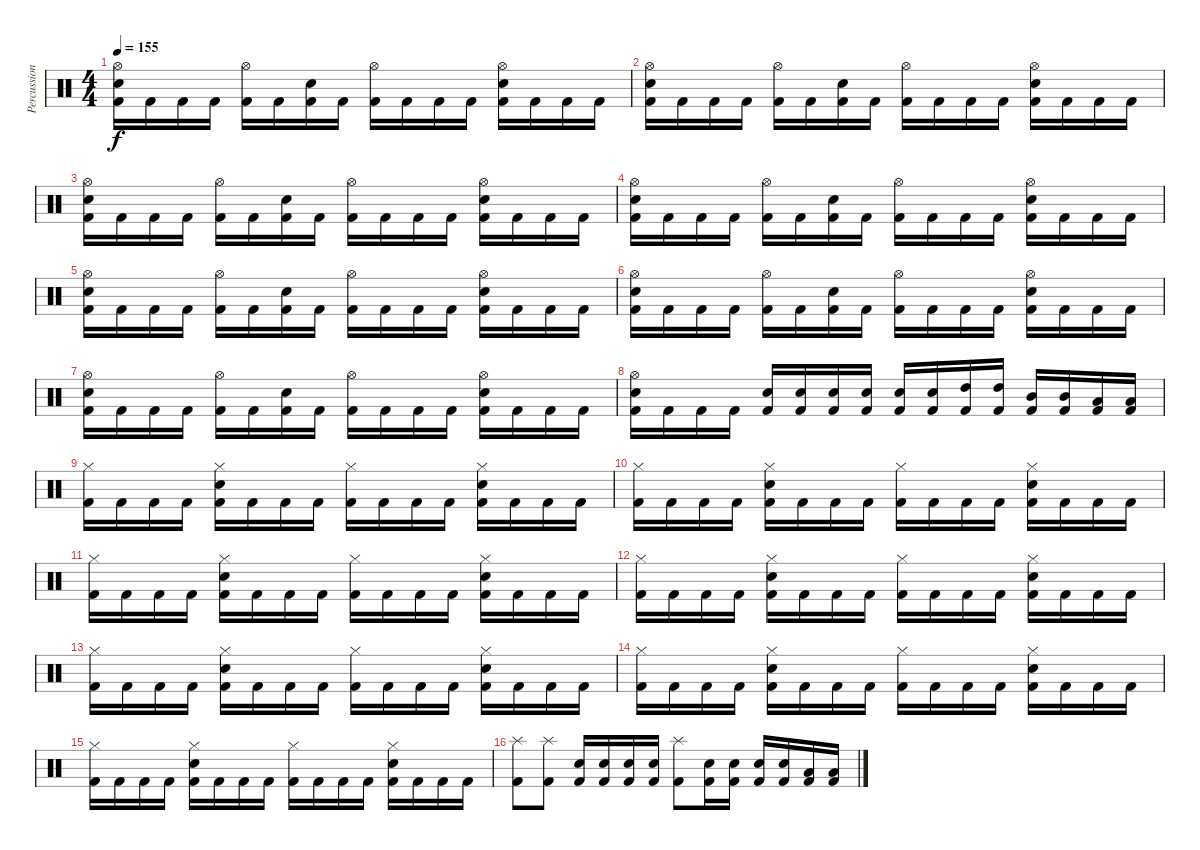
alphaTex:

\track ("Percussion" "Percussion") {instrument percussion}
\staff {score}
\articulation defaults
\ts (4 4)
\tempo 155
\clef neutral
\ks c
("Hi-Hat (open)" "Electric Snare (hit)" "Kick (hit) 2").16{dy f} "Kick (hit) 2".16 "Kick (hit) 2".16 "Kick (hit) 2".16 ("Hi-Hat (open)" "Kick (hit) 2").16 "Kick (hit) 2".16 ("Electric Snare (hit)" "Kick (hit) 2").16 "Kick (hit) 2".16 ("Hi-Hat (open)" "Kick (hit) 2").16 "Kick (hit) 2".16 "Kick (hit) 2".16 "Kick (hit) 2".16 ("Hi-Hat (open)" "Electric Snare (hit)" "Kick (hit) 2").16 "Kick (hit) 2".16 "Kick (hit) 2".16 "Kick (hit) 2".16 |
("Hi-Hat (open)" "Electric Snare (hit)" "Kick (hit) 2").16 "Kick (hit) 2".16 "Kick (hit) 2".16 "Kick (hit) 2".16 ("Hi-Hat (open)" "Kick (hit) 2").16 "Kick (hit) 2".16 ("Electric Snare (hit)" "Kick (hit) 2").16 "Kick (hit) 2".16 ("Hi-Hat (open)" "Kick (hit) 2").16 "Kick (hit) 2".16 "Kick (hit) 2".16 "Kick (hit) 2".16 ("Hi-Hat (open)" "Electric Snare (hit)" "Kick (hit) 2").16 "Kick (hit) 2".16 "Kick (hit) 2".16 "Kick (hit) 2".16 |
("Hi-Hat (open)" "Electric Snare (hit)" "Kick (hit) 2").16 "Kick (hit) 2".16 "Kick (hit) 2".16 "Kick (hit) 2".16 ("Hi-Hat (open)" "Kick (hit) 2").16 "Kick (hit) 2".16 ("Electric Snare (hit)" "Kick (hit) 2").16 "Kick (hit) 2".16 ("Hi-Hat (open)" "Kick (hit) 2").16 "Kick (hit) 2".16 "Kick (hit) 2".16 "Kick (hit) 2".16 ("Hi-Hat (open)" "Electric Snare (hit)" "Kick (hit) 2").16 "Kick (hit) 2".16 "Kick (hit) 2".16 "Kick (hit) 2".16 |
("Hi-Hat (open)" "Electric Snare (hit)" "Kick (hit) 2").16 "Kick (hit) 2".16 "Kick (hit) 2".16 "Kick (hit) 2".16 ("Hi-Hat (open)" "Kick (hit) 2").16 "Kick (hit) 2".16 ("Electric Snare (hit)" "Kick (hit) 2").16 "Kick (hit) 2".16 ("Hi-Hat (open)" "Kick (hit) 2").16 "Kick (hit) 2".16 "Kick (hit) 2".16 "Kick (hit) 2".16 ("Hi-Hat (open)" "Electric Snare (hit)" "Kick (hit) 2").16 "Kick (hit) 2".16 "Kick (hit) 2".16 "Kick (hit) 2".16 |
("Hi-Hat (open)" "Electric Snare (hit)" "Kick (hit) 2").16 "Kick (hit) 2".16 "Kick (hit) 2".16 "Kick (hit) 2".16 ("Hi-Hat (open)" "Kick (hit) 2").16 "Kick (hit) 2".16 ("Electric Snare (hit)" "Kick (hit) 2").16 "Kick (hit) 2".16 ("Hi-Hat (open)" "Kick (hit) 2").16 "Kick (hit) 2".16 "Kick (hit) 2".16 "Kick (hit) 2".16 ("Hi-Hat (open)" "Electric Snare (hit)" "Kick (hit) 2").16 "Kick (hit) 2".16 "Kick (hit) 2".16 "Kick (hit) 2".16 |
("Hi-Hat (open)" "Electric Snare (hit)" "Kick (hit) 2").16 "Kick (hit) 2".16 "Kick (hit) 2".16 "Kick (hit) 2".16 ("Hi-Hat (open)" "Kick (hit) 2").16 "Kick (hit) 2".16 ("Electric Snare (hit)" "Kick (hit) 2").16 "Kick (hit) 2".16 ("Hi-Hat (open)" "Kick (hit) 2").16 "Kick (hit) 2".16 "Kick (hit) 2".16 "Kick (hit) 2".16 ("Hi-Hat (open)" "Electric Snare (hit)" "Kick (hit) 2").16 "Kick (hit) 2".16 "Kick (hit) 2".16 "Kick (hit) 2".16 |
("Hi-Hat (open)" "Electric Snare (hit)" "Kick (hit) 2").16 "Kick (hit) 2".16 "Kick (hit) 2".16 "Kick (hit) 2".16 ("Hi-Hat (open)" "Kick (hit) 2").16 "Kick (hit) 2".16 ("Electric Snare (hit)" "Kick (hit) 2").16 "Kick (hit) 2".16 ("Hi-Hat (open)" "Kick (hit) 2").16 "Kick (hit) 2".16 "Kick (hit) 2".16 "Kick (hit) 2".16 ("Hi-Hat (open)" "Electric Snare (hit)" "Kick (hit) 2").16 "Kick (hit) 2".16 "Kick (hit) 2".16 "Kick (hit) 2".16 |
("Hi-Hat (open)" "Electric Snare (hit)" "Kick (hit) 2").16 "Kick (hit) 2".16 "Kick (hit) 2".16 "Kick (hit) 2".16 ("Electric Snare (hit)" "Kick (hit) 2").16 ("Electric Snare (hit)" "Kick (hit) 2").16 ("Electric Snare (hit)" "Kick (hit) 2").16 ("Electric Snare (hit)" "Kick (hit) 2").16 ("Electric Snare (hit)" "Kick (hit) 2").16 ("Electric Snare (hit)" "Kick (hit) 2").16 ("High Tom (hit)" "Kick (hit) 2").16 ("High Tom (hit)" "Kick (hit) 2").16 ("Mid Tom (hit)" "Kick (hit) 2").16 ("Mid Tom (hit)" "Kick (hit) 2").16 ("Low Tom (hit)" "Kick (hit) 2").16 ("Low Tom (hit)" "Kick (hit) 2").16 |
("Hi-Hat (closed)" "Kick (hit) 2").16 "Kick (hit) 2".16 "Kick (hit) 2".16 "Kick (hit) 2".16 ("Hi-Hat (closed)" "Electric Snare (hit)" "Kick (hit) 2").16 "Kick (hit) 2".16 "Kick (hit) 2".16 "Kick (hit) 2".16 ("Hi-Hat (closed)" "Kick (hit) 2").16 "Kick (hit) 2".16 "Kick (hit) 2".16 "Kick (hit) 2".16 ("Hi-Hat (closed)" "Electric Snare (hit)" "Kick (hit) 2").16 "Kick (hit) 2".16 "Kick (hit) 2".16 "Kick (hit) 2".16 |
("Hi-Hat (closed)" "Kick (hit) 2").16 "Kick (hit) 2".16 "Kick (hit) 2".16 "Kick (hit) 2".16 ("Hi-Hat (closed)" "Electric Snare (hit)" "Kick (hit) 2").16 "Kick (hit) 2".16 "Kick (hit) 2".16 "Kick (hit) 2".16 ("Hi-Hat (closed)" "Kick (hit) 2").16 "Kick (hit) 2".16 "Kick (hit) 2".16 "Kick (hit) 2".16 ("Hi-Hat (closed)" "Electric Snare (hit)" "Kick (hit) 2").16 "Kick (hit) 2".16 "Kick (hit) 2".16 "Kick (hit) 2".16 |
("Hi-Hat (closed)" "Kick (hit) 2").16 "Kick (hit) 2".16 "Kick (hit) 2".16 "Kick (hit) 2".16 ("Hi-Hat (closed)" "Electric Snare (hit)" "Kick (hit) 2").16 "Kick (hit) 2".16 "Kick (hit) 2".16 "Kick (hit) 2".16 ("Hi-Hat (closed)" "Kick (hit) 2").16 "Kick (hit) 2".16 "Kick (hit) 2".16 "Kick (hit) 2".16 ("Hi-Hat (closed)" "Electric Snare (hit)" "Kick (hit) 2").16 "Kick (hit) 2".16 "Kick (hit) 2".16 "Kick (hit) 2".16 |
("Hi-Hat (closed)" "Kick (hit) 2").16 "Kick (hit) 2".16 "Kick (hit) 2".16 "Kick (hit) 2".16 ("Hi-Hat (closed)" "Electric Snare (hit)" "Kick (hit) 2").16 "Kick (hit) 2".16 "Kick (hit) 2".16 "Kick (hit) 2".16 ("Hi-Hat (closed)" "Kick (hit) 2").16 "Kick (hit) 2".16 "Kick (hit) 2".16 "Kick (hit) 2".16 ("Hi-Hat (closed)" "Electric Snare (hit)" "Kick (hit) 2").16 "Kick (hit) 2".16 "Kick (hit) 2".16 "Kick (hit) 2".16 |
("Hi-Hat (closed)" "Kick (hit) 2").16 "Kick (hit) 2".16 "Kick (hit) 2".16 "Kick (hit) 2".16 ("Hi-Hat (closed)" "Electric Snare (hit)" "Kick (hit) 2").16 "Kick (hit) 2".16 "Kick (hit) 2".16 "Kick (hit) 2".16 ("Hi-Hat (closed)" "Kick (hit) 2").16 "Kick (hit) 2".16 "Kick (hit) 2".16 "Kick (hit) 2".16 ("Hi-Hat (closed)" "Electric Snare (hit)" "Kick (hit) 2").16 "Kick (hit) 2".16 "Kick (hit) 2".16 "Kick (hit) 2".16 |
("Hi-Hat (closed)" "Kick (hit) 2").16 "Kick (hit) 2".16 "Kick (hit) 2".16 "Kick (hit) 2".16 ("Hi-Hat (closed)" "Electric Snare (hit)" "Kick (hit) 2").16 "Kick (hit) 2".16 "Kick (hit) 2".16 "Kick (hit) 2".16 ("Hi-Hat (closed)" "Kick (hit) 2").16 "Kick (hit) 2".16 "Kick (hit) 2".16 "Kick (hit) 2".16 ("Hi-Hat (closed)" "Electric Snare (hit)" "Kick (hit) 2").16 "Kick (hit) 2".16 "Kick (hit) 2".16 "Kick (hit) 2".16 |
("Hi-Hat (closed)" "Kick (hit) 2").16 "Kick (hit) 2".16 "Kick (hit) 2".16 "Kick (hit) 2".16 ("Hi-Hat (closed)" "Electric Snare (hit)" "Kick (hit) 2").16 "Kick (hit) 2".16 "Kick (hit) 2".16 "Kick (hit) 2".16 ("Hi-Hat (closed)" "Kick (hit) 2").16 "Kick (hit) 2".16 "Kick (hit) 2".16 "Kick (hit) 2".16 ("Hi-Hat (closed)" "Electric Snare (hit)" "Kick (hit) 2").16 "Kick (hit) 2".16 "Kick (hit) 2".16 "Kick (hit) 2".16 |
("Splash (hit)" "Kick (hit) 2").8 ("Splash (hit)" "Kick (hit) 2").8 ("Electric Snare (hit)" "Kick (hit) 2").16 ("Electric Snare (hit)" "Kick (hit) 2").16 ("Electric Snare (hit)" "Kick (hit) 2").16 ("Electric Snare (hit)" "Kick (hit) 2").16 ("Splash (hit)" "Kick (hit) 2").8 ("Electric Snare (hit)" "Kick (hit) 2").16 ("Electric Snare (hit)" "Kick (hit) 2").16 ("Electric Snare (hit)" "Kick (hit) 2").16 ("Electric Snare (hit)" "Kick (hit) 2").16 ("Low Tom (hit)" "Kick (hit) 2").16 ("Low Tom (hit)" "Kick (hit) 2").16
